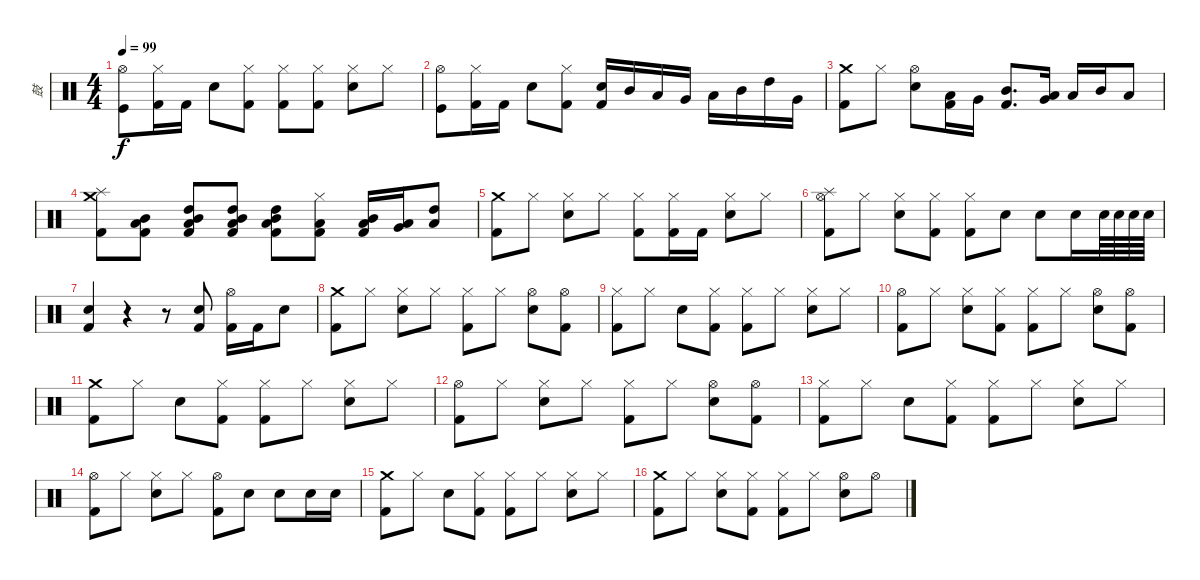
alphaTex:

\track ("鼓" "鼓") {instrument percussion}
\staff {score}
\articulation defaults
\ts (4 4)
\tempo 99
\clef neutral
\ks c
("Hi-Hat (open)" "Kick (hit)").8{dy f} ("Hi-Hat (closed)" "Kick (hit) 2").16 "Kick (hit) 2".16 "Electric Snare (hit)".8 ("Hi-Hat (closed)" "Kick (hit) 2").8 ("Hi-Hat (closed)" "Kick (hit) 2").8 ("Hi-Hat (closed)" "Kick (hit) 2").8 ("Hi-Hat (closed)" "Electric Snare (hit)").8 "Hi-Hat (closed)".8 |
("Hi-Hat (open)" "Kick (hit)").8 ("Hi-Hat (closed)" "Kick (hit) 2").16 "Kick (hit) 2".16 "Electric Snare (hit)".8 ("Hi-Hat (closed)" "Kick (hit) 2").8 ("Electric Snare (hit)" "Kick (hit) 2").16 "Mid Tom (hit)".16 "Low Tom (hit)".16 "Very Low Tom (hit)".16 "Low Tom (hit)".16 "Mid Tom (hit)".16 "High Tom (hit)".16 "Very Low Tom (hit)".16 |
("Crash medium (hit)" "Kick (hit) 2").8 "Hi-Hat (closed)".8 ("Hi-Hat (open)" "Electric Snare (hit)").8 ("Low Tom (hit)" "Kick (hit) 2").16 "Very Low Tom (hit)".16 ("Mid Tom (hit)" "Kick (hit) 2").8{d} ("Very Low Tom (hit)" "Low Tom (hit)").16 "Low Tom (hit)".16 "Mid Tom (hit)".16 "Low Floor Tom (hit)".8 |
("Splash (hit)" "Crash medium (hit)" "Kick (hit) 2").8 ("Mid Tom (hit)" "Low Tom (hit)" "Kick (hit) 2").8 ("Mid Tom (hit)" "High Tom (hit)" "Low Tom (hit)" "Kick (hit) 2").8 ("Mid Tom (hit)" "High Tom (hit)" "Low Tom (hit)" "Kick (hit) 2").8 ("Mid Tom (hit)" "High Tom (hit)" "Low Tom (hit)" "Kick (hit) 2").8 ("Hi-Hat (closed)" "Low Tom (hit)" "Kick (hit) 2").8 ("Mid Tom (hit)" "Low Tom (hit)" "Kick (hit) 2").16 ("Low Tom (hit)" "Very Low Tom (hit)").16 ("High Tom (hit)" "Low Floor Tom (hit)").8 |
("Crash medium (hit)" "Kick (hit) 2").8 "Hi-Hat (closed)".8 ("Hi-Hat (closed)" "Electric Snare (hit)").8 "Hi-Hat (closed)".8 ("Hi-Hat (closed)" "Kick (hit) 2").8 ("Hi-Hat (closed)" "Kick (hit) 2").16 "Kick (hit) 2".16 ("Hi-Hat (closed)" "Electric Snare (hit)").8 "Hi-Hat (closed)".8 |
("Hi-Hat (open)" "Splash (hit)" "Kick (hit) 2").8 "Hi-Hat (closed)".8 ("Hi-Hat (closed)" "Electric Snare (hit)").8 ("Hi-Hat (closed)" "Kick (hit) 2").8 ("Hi-Hat (closed)" "Kick (hit) 2").8 "Electric Snare (hit)".8 "Electric Snare (hit)".8 "Electric Snare (hit)".16 "Electric Snare (hit)".64 "Electric Snare (hit)".64 "Electric Snare (hit)".64 "Electric Snare (hit)".64 |
("Electric Snare (hit)" "Kick (hit) 2").4 r.4 r.8 ("Electric Snare (hit)" "Kick (hit) 2").8 ("Hi-Hat (open)" "Kick (hit) 2").16 "Kick (hit) 2".16 "Electric Snare (hit)".8 |
("Crash medium (hit)" "Kick (hit) 2").8 "Hi-Hat (closed)".8 ("Hi-Hat (closed)" "Electric Snare (hit)").8 "Hi-Hat (closed)".8 ("Hi-Hat (closed)" "Kick (hit) 2").8 "Hi-Hat (closed)".8 ("Hi-Hat (open)" "Electric Snare (hit)").8 ("Hi-Hat (open)" "Kick (hit) 2").8 |
("Hi-Hat (closed)" "Kick (hit) 2").8 "Hi-Hat (closed)".8 "Electric Snare (hit)".8 ("Hi-Hat (closed)" "Kick (hit) 2").8 ("Hi-Hat (closed)" "Kick (hit) 2").8 "Hi-Hat (closed)".8 ("Hi-Hat (closed)" "Electric Snare (hit)").8 "Hi-Hat (closed)".8 |
("Hi-Hat (open)" "Kick (hit) 2").8 "Hi-Hat (closed)".8 ("Hi-Hat (closed)" "Electric Snare (hit)").8 ("Hi-Hat (closed)" "Kick (hit) 2").8 ("Hi-Hat (closed)" "Kick (hit) 2").8 "Hi-Hat (closed)".8 ("Hi-Hat (open)" "Electric Snare (hit)").8 ("Hi-Hat (open)" "Kick (hit) 2").8 |
("Crash medium (hit)" "Kick (hit) 2").8 "Hi-Hat (closed)".8 "Electric Snare (hit)".8 ("Hi-Hat (closed)" "Kick (hit) 2").8 ("Hi-Hat (closed)" "Kick (hit) 2").8 "Hi-Hat (closed)".8 ("Hi-Hat (closed)" "Electric Snare (hit)").8 "Hi-Hat (closed)".8 |
("Hi-Hat (open)" "Kick (hit) 2").8 "Hi-Hat (closed)".8 ("Hi-Hat (closed)" "Electric Snare (hit)").8 "Hi-Hat (closed)".8 ("Hi-Hat (closed)" "Kick (hit) 2").8 "Hi-Hat (closed)".8 ("Hi-Hat (open)" "Electric Snare (hit)").8 ("Hi-Hat (open)" "Kick (hit) 2").8 |
("Hi-Hat (closed)" "Kick (hit) 2").8 "Hi-Hat (closed)".8 "Electric Snare (hit)".8 ("Hi-Hat (closed)" "Kick (hit) 2").8 ("Hi-Hat (closed)" "Kick (hit) 2").8 "Hi-Hat (closed)".8 ("Hi-Hat (closed)" "Electric Snare (hit)").8 "Hi-Hat (closed)".8 |
("Hi-Hat (open)" "Kick (hit) 2").8 "Hi-Hat (closed)".8 ("Hi-Hat (closed)" "Electric Snare (hit)").8 "Hi-Hat (closed)".8 ("Hi-Hat (open)" "Kick (hit) 2").8 "Electric Snare (hit)".8 "Electric Snare (hit)".8 "Electric Snare (hit)".16 "Electric Snare (hit)".16 |
("Crash medium (hit)" "Kick (hit) 2").8 "Hi-Hat (closed)".8 "Electric Snare (hit)".8 ("Hi-Hat (closed)" "Kick (hit) 2").8 ("Hi-Hat (closed)" "Kick (hit) 2").8 "Hi-Hat (closed)".8 ("Hi-Hat (closed)" "Electric Snare (hit)").8 "Hi-Hat (closed)".8 |
("Crash medium (hit)" "Kick (hit) 2").8 "Hi-Hat (closed)".8 ("Hi-Hat (closed)" "Electric Snare (hit)").8 ("Hi-Hat (closed)" "Kick (hit) 2").8 ("Hi-Hat (closed)" "Kick (hit) 2").8 "Hi-Hat (closed)".8 ("Hi-Hat (open)" "Electric Snare (hit)").8 "Hi-Hat (open)".8
